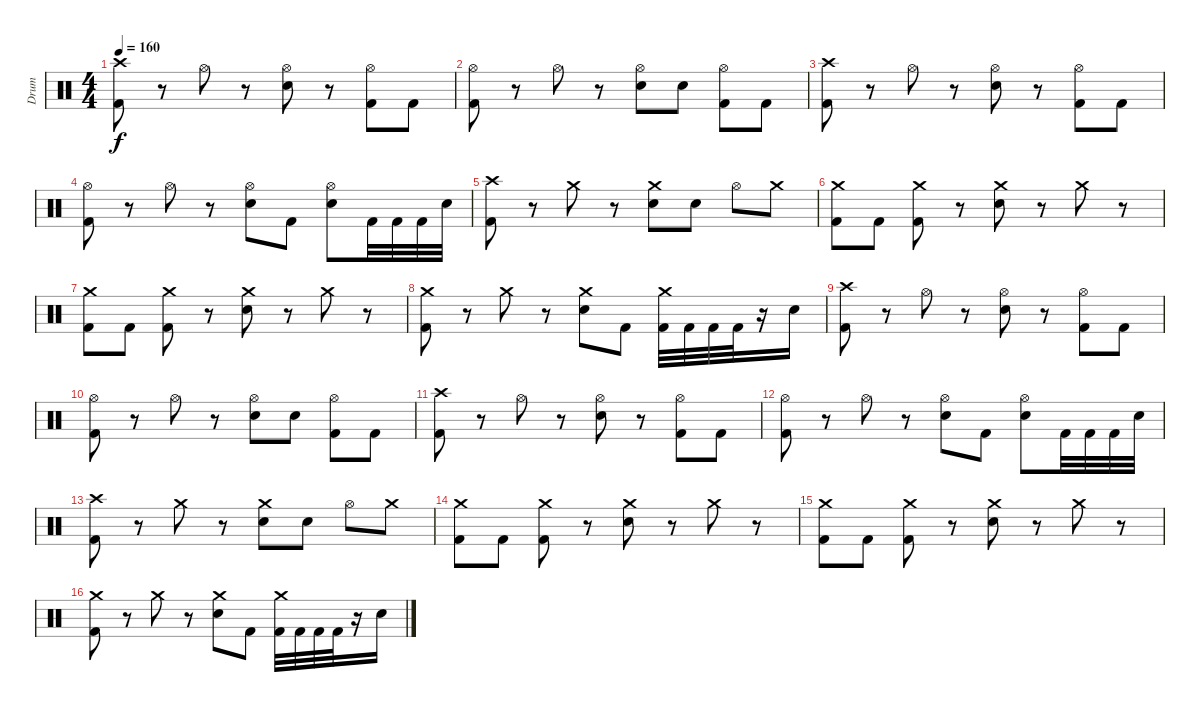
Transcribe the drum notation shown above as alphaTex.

\track ("Drum" "Drum") {instrument percussion}
\staff {score}
\articulation defaults
\ts (4 4)
\tempo 160
\clef neutral
\ks c
("Crash high (hit)" "Kick (hit) 2").8{dy f} r.8 "Hi-Hat (open)".8 r.8 ("Hi-Hat (open)" "Electric Snare (hit)").8 r.8 ("Hi-Hat (open)" "Kick (hit) 2").8 "Kick (hit) 2".8 |
("Hi-Hat (open)" "Kick (hit) 2").8 r.8 "Hi-Hat (open)".8 r.8 ("Hi-Hat (open)" "Electric Snare (hit)").8 "Electric Snare (hit)".8 ("Hi-Hat (open)" "Kick (hit) 2").8 "Kick (hit) 2".8 |
("Crash high (hit)" "Kick (hit) 2").8 r.8 "Hi-Hat (open)".8 r.8 ("Hi-Hat (open)" "Electric Snare (hit)").8 r.8 ("Hi-Hat (open)" "Kick (hit) 2").8 "Kick (hit) 2".8 |
("Hi-Hat (open)" "Kick (hit) 2").8 r.8 "Hi-Hat (open)".8 r.8 ("Hi-Hat (open)" "Electric Snare (hit)").8 "Kick (hit) 2".8 ("Hi-Hat (open)" "Electric Snare (hit)").8 "Kick (hit) 2".32 "Kick (hit) 2".32 "Kick (hit) 2".32 "Electric Snare (hit)".32 |
("Crash high (hit)" "Kick (hit) 2").8 r.8 "Crash medium (hit)".8 r.8 ("Crash medium (hit)" "Electric Snare (hit)").8 "Electric Snare (hit)".8 "Hi-Hat (open)".8 "Crash medium (hit)".8 |
("Crash medium (hit)" "Kick (hit) 2").8 "Kick (hit) 2".8 ("Crash medium (hit)" "Kick (hit) 2").8 r.8 ("Crash medium (hit)" "Electric Snare (hit)").8 r.8 "Crash medium (hit)".8 r.8 |
("Crash medium (hit)" "Kick (hit) 2").8 "Kick (hit) 2".8 ("Crash medium (hit)" "Kick (hit) 2").8 r.8 ("Crash medium (hit)" "Electric Snare (hit)").8 r.8 "Crash medium (hit)".8 r.8 |
("Crash medium (hit)" "Kick (hit) 2").8 r.8 "Crash medium (hit)".8 r.8 ("Crash medium (hit)" "Electric Snare (hit)").8 "Kick (hit) 2".8 ("Crash medium (hit)" "Kick (hit) 2").32 "Kick (hit) 2".32 "Kick (hit) 2".32 "Kick (hit) 2".32 r.16 "Electric Snare (hit)".16 |
("Crash high (hit)" "Kick (hit) 2").8 r.8 "Hi-Hat (open)".8 r.8 ("Hi-Hat (open)" "Electric Snare (hit)").8 r.8 ("Hi-Hat (open)" "Kick (hit) 2").8 "Kick (hit) 2".8 |
("Hi-Hat (open)" "Kick (hit) 2").8 r.8 "Hi-Hat (open)".8 r.8 ("Hi-Hat (open)" "Electric Snare (hit)").8 "Electric Snare (hit)".8 ("Hi-Hat (open)" "Kick (hit) 2").8 "Kick (hit) 2".8 |
("Crash high (hit)" "Kick (hit) 2").8 r.8 "Hi-Hat (open)".8 r.8 ("Hi-Hat (open)" "Electric Snare (hit)").8 r.8 ("Hi-Hat (open)" "Kick (hit) 2").8 "Kick (hit) 2".8 |
("Hi-Hat (open)" "Kick (hit) 2").8 r.8 "Hi-Hat (open)".8 r.8 ("Hi-Hat (open)" "Electric Snare (hit)").8 "Kick (hit) 2".8 ("Hi-Hat (open)" "Electric Snare (hit)").8 "Kick (hit) 2".32 "Kick (hit) 2".32 "Kick (hit) 2".32 "Electric Snare (hit)".32 |
("Crash high (hit)" "Kick (hit) 2").8 r.8 "Crash medium (hit)".8 r.8 ("Crash medium (hit)" "Electric Snare (hit)").8 "Electric Snare (hit)".8 "Hi-Hat (open)".8 "Crash medium (hit)".8 |
("Crash medium (hit)" "Kick (hit) 2").8 "Kick (hit) 2".8 ("Crash medium (hit)" "Kick (hit) 2").8 r.8 ("Crash medium (hit)" "Electric Snare (hit)").8 r.8 "Crash medium (hit)".8 r.8 |
("Crash medium (hit)" "Kick (hit) 2").8 "Kick (hit) 2".8 ("Crash medium (hit)" "Kick (hit) 2").8 r.8 ("Crash medium (hit)" "Electric Snare (hit)").8 r.8 "Crash medium (hit)".8 r.8 |
("Crash medium (hit)" "Kick (hit) 2").8 r.8 "Crash medium (hit)".8 r.8 ("Crash medium (hit)" "Electric Snare (hit)").8 "Kick (hit) 2".8 ("Crash medium (hit)" "Kick (hit) 2").32 "Kick (hit) 2".32 "Kick (hit) 2".32 "Kick (hit) 2".32 r.16 "Electric Snare (hit)".16
